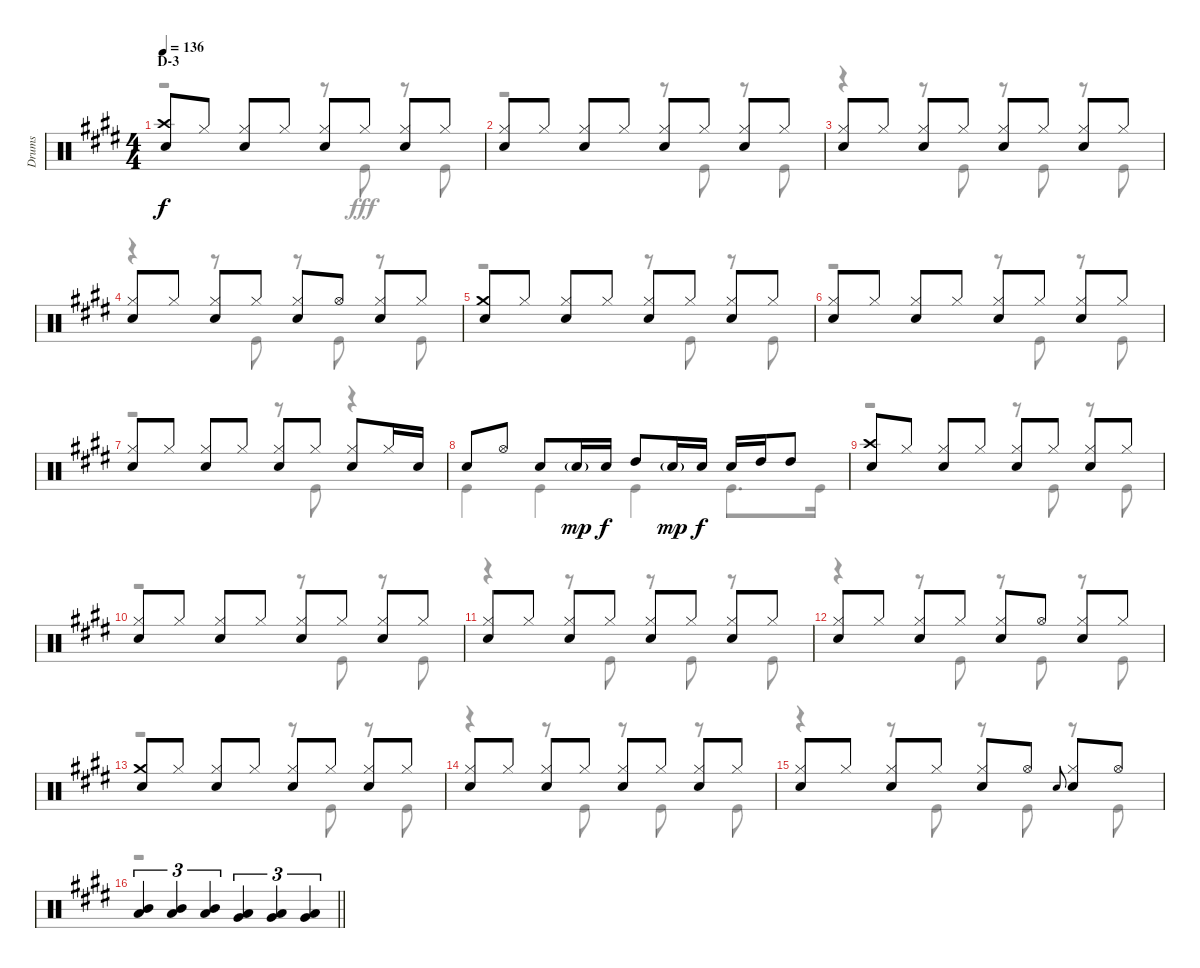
\track ("Drums" "Drums") {instrument percussion}
\staff {score}
\articulation defaults
\voice
\ts (4 4)
\section ("" "D-3")
\tempo 136
\clef neutral
\ks e
("Crash high (hit)" "Snare (hit) 2").8{dy f} "Hi-Hat (closed)".8 ("Hi-Hat (closed)" "Snare (hit) 2").8 "Hi-Hat (closed)".8 ("Hi-Hat (closed)" "Snare (hit) 2").8 "Hi-Hat (closed)".8 ("Hi-Hat (closed)" "Snare (hit) 2").8 "Hi-Hat (closed)".8 |
("Hi-Hat (closed)" "Snare (hit) 2").8 "Hi-Hat (closed)".8 ("Hi-Hat (closed)" "Snare (hit) 2").8 "Hi-Hat (closed)".8 ("Hi-Hat (closed)" "Snare (hit) 2").8 "Hi-Hat (closed)".8 ("Hi-Hat (closed)" "Snare (hit) 2").8 "Hi-Hat (closed)".8 |
("Hi-Hat (closed)" "Snare (hit) 2").8 "Hi-Hat (closed)".8 ("Hi-Hat (closed)" "Snare (hit) 2").8 "Hi-Hat (closed)".8 ("Hi-Hat (closed)" "Snare (hit) 2").8 "Hi-Hat (closed)".8 ("Hi-Hat (closed)" "Snare (hit) 2").8 "Hi-Hat (closed)".8 |
("Hi-Hat (closed)" "Snare (hit) 2").8 "Hi-Hat (closed)".8 ("Hi-Hat (closed)" "Snare (hit) 2").8 "Hi-Hat (closed)".8 ("Hi-Hat (closed)" "Snare (hit) 2").8 "Hi-Hat (open)".8 ("Hi-Hat (closed)" "Snare (hit) 2").8 "Hi-Hat (closed)".8 |
("Crash medium (hit)" "Snare (hit) 2").8 "Hi-Hat (closed)".8 ("Hi-Hat (closed)" "Snare (hit) 2").8 "Hi-Hat (closed)".8 ("Hi-Hat (closed)" "Snare (hit) 2").8 "Hi-Hat (closed)".8 ("Hi-Hat (closed)" "Snare (hit) 2").8 "Hi-Hat (closed)".8 |
("Hi-Hat (closed)" "Snare (hit) 2").8 "Hi-Hat (closed)".8 ("Hi-Hat (closed)" "Snare (hit) 2").8 "Hi-Hat (closed)".8 ("Hi-Hat (closed)" "Snare (hit) 2").8 "Hi-Hat (closed)".8 ("Hi-Hat (closed)" "Snare (hit) 2").8 "Hi-Hat (closed)".8 |
("Hi-Hat (closed)" "Snare (hit) 2").8 "Hi-Hat (closed)".8 ("Hi-Hat (closed)" "Snare (hit) 2").8 "Hi-Hat (closed)".8 ("Hi-Hat (closed)" "Snare (hit) 2").8 "Hi-Hat (closed)".8 ("Hi-Hat (closed)" "Snare (hit) 2").8 "Hi-Hat (closed)".16 "Snare (hit) 2".16 |
"Snare (hit) 2".8 "Hi-Hat (open)".8 "Snare (hit) 2".8 "Snare (hit) 2"{g}.16{dy mp} "Snare (hit) 2".16{dy f} "High Tom (hit)".8 "Snare (hit) 2"{g}.16{dy mp} "Snare (hit) 2".16{dy f} "Snare (hit) 2".16 "High Tom (hit)".16 "High Tom (hit)".8 |
("Crash high (hit)" "Snare (hit) 2").8 "Hi-Hat (closed)".8 ("Hi-Hat (closed)" "Snare (hit) 2").8 "Hi-Hat (closed)".8 ("Hi-Hat (closed)" "Snare (hit) 2").8 "Hi-Hat (closed)".8 ("Hi-Hat (closed)" "Snare (hit) 2").8 "Hi-Hat (closed)".8 |
("Hi-Hat (closed)" "Snare (hit) 2").8 "Hi-Hat (closed)".8 ("Hi-Hat (closed)" "Snare (hit) 2").8 "Hi-Hat (closed)".8 ("Hi-Hat (closed)" "Snare (hit) 2").8 "Hi-Hat (closed)".8 ("Hi-Hat (closed)" "Snare (hit) 2").8 "Hi-Hat (closed)".8 |
("Hi-Hat (closed)" "Snare (hit) 2").8 "Hi-Hat (closed)".8 ("Hi-Hat (closed)" "Snare (hit) 2").8 "Hi-Hat (closed)".8 ("Hi-Hat (closed)" "Snare (hit) 2").8 "Hi-Hat (closed)".8 ("Hi-Hat (closed)" "Snare (hit) 2").8 "Hi-Hat (closed)".8 |
("Hi-Hat (closed)" "Snare (hit) 2").8 "Hi-Hat (closed)".8 ("Hi-Hat (closed)" "Snare (hit) 2").8 "Hi-Hat (closed)".8 ("Hi-Hat (closed)" "Snare (hit) 2").8 "Hi-Hat (open)".8 ("Hi-Hat (closed)" "Snare (hit) 2").8 "Hi-Hat (closed)".8 |
("Crash medium (hit)" "Snare (hit) 2").8 "Hi-Hat (closed)".8 ("Hi-Hat (closed)" "Snare (hit) 2").8 "Hi-Hat (closed)".8 ("Hi-Hat (closed)" "Snare (hit) 2").8 "Hi-Hat (closed)".8 ("Hi-Hat (closed)" "Snare (hit) 2").8 "Hi-Hat (closed)".8 |
("Hi-Hat (closed)" "Snare (hit) 2").8 "Hi-Hat (closed)".8 ("Hi-Hat (closed)" "Snare (hit) 2").8 "Hi-Hat (closed)".8 ("Hi-Hat (closed)" "Snare (hit) 2").8 "Hi-Hat (closed)".8 ("Hi-Hat (closed)" "Snare (hit) 2").8 "Hi-Hat (closed)".8 |
("Hi-Hat (closed)" "Snare (hit) 2").8 "Hi-Hat (closed)".8 ("Hi-Hat (closed)" "Snare (hit) 2").8 "Hi-Hat (closed)".8 ("Hi-Hat (closed)" "Snare (hit) 2").8 "Hi-Hat (open)".8 "Snare (hit) 2".8{gr onbeat} ("Hi-Hat (closed)" "Snare (hit) 2").8 "Hi-Hat (open)".8 |
\barLineRight lightlight
("Mid Tom (hit)" "Low Tom (hit)").4{tu (3 2)} ("Mid Tom (hit)" "Low Tom (hit)").4{tu (3 2)} ("Mid Tom (hit)" "Low Tom (hit)").4{tu (3 2)} ("Low Tom (hit)" "Very Low Tom (hit)").4{tu (3 2)} ("Low Tom (hit)" "Very Low Tom (hit)").4{tu (3 2)} ("Low Tom (hit)" "Very Low Tom (hit)").4{tu (3 2)}
\voice
\clef neutral
\ottava regular
\simile none
\ks e
r.2{dy fff} r.8 "Kick (hit)".8 r.8 "Kick (hit)".8 |
r.2 r.8 "Kick (hit)".8 r.8 "Kick (hit)".8 |
r.4 r.8 "Kick (hit)".8 r.8 "Kick (hit)".8 r.8 "Kick (hit)".8 |
r.4 r.8 "Kick (hit)".8 r.8 "Kick (hit)".8 r.8 "Kick (hit)".8 |
r.2 r.8 "Kick (hit)".8 r.8 "Kick (hit)".8 |
r.2 r.8 "Kick (hit)".8 r.8 "Kick (hit)".8 |
r.2 r.8 "Kick (hit)".8 r.4 |
"Kick (hit)".4 "Kick (hit)".4 "Kick (hit)".4 "Kick (hit)".8{d} "Kick (hit)".16 |
r.2 r.8 "Kick (hit)".8 r.8 "Kick (hit)".8 |
r.2 r.8 "Kick (hit)".8 r.8 "Kick (hit)".8 |
r.4 r.8 "Kick (hit)".8 r.8 "Kick (hit)".8 r.8 "Kick (hit)".8 |
r.4 r.8 "Kick (hit)".8 r.8 "Kick (hit)".8 r.8 "Kick (hit)".8 |
r.2 r.8 "Kick (hit)".8 r.8 "Kick (hit)".8 |
r.4 r.8 "Kick (hit)".8 r.8 "Kick (hit)".8 r.8 "Kick (hit)".8 |
r.4 r.8 "Kick (hit)".8 r.8 "Kick (hit)".8 r.8 "Kick (hit)".8 |
\barLineRight lightlight
r.1
